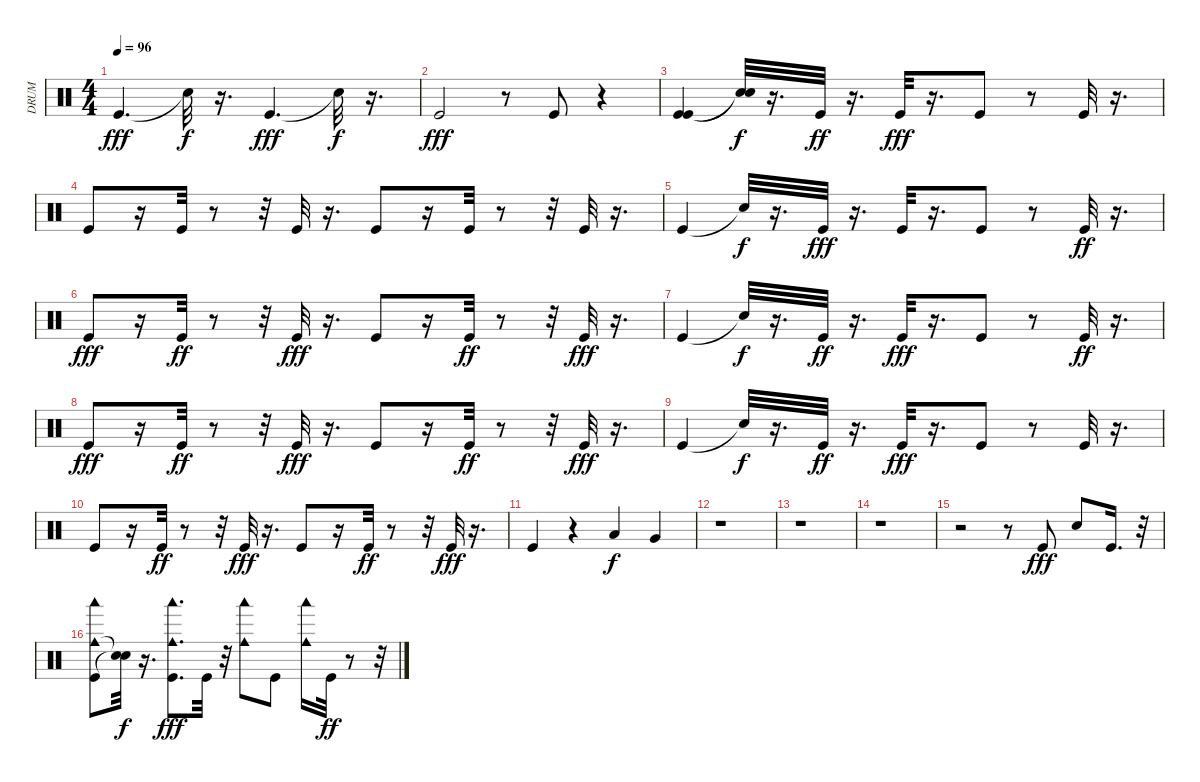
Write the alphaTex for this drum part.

\track ("DRUM" "DRUM") {instrument percussion}
\staff {score}
\articulation defaults
\ts (4 4)
\tempo 96
\clef neutral
\ks c "Kick (hit)".4{d dy fff} "Snare (hit)"{t}.32{dy f}
r.16{d} "Kick (hit)".4{d dy fff} "Snare (hit)"{t}.32{dy f} r.16{d} |
"Kick (hit)".2{dy fff} r.8 "Kick (hit)".8 r.4 |
("Kick (hit)" "Kick (hit)").4 ("Snare (hit)"{t} "Snare (hit)"{t}).32{dy f} r.16{d} "Kick (hit)".32{dy ff} r.16{d} "Kick (hit)".32{dy fff} r.16{d} "Kick (hit)".8 r.8 "Kick (hit)".32 r.16{d} |
"Kick (hit)".8 r.16 "Kick (hit)".32 r.8 r.32 "Kick (hit)".32 r.16{d} "Kick (hit)".8 r.16 "Kick (hit)".32 r.8 r.32 "Kick (hit)".32 r.16{d} |
"Kick (hit)".4 "Snare (hit)"{t}.32{dy f} r.16{d} "Kick (hit)".32{dy fff} r.16{d} "Kick (hit)".32 r.16{d} "Kick (hit)".8 r.8 "Kick (hit)".32{dy ff} r.16{d} |
"Kick (hit)".8{dy fff} r.16 "Kick (hit)".32{dy ff} r.8 r.32 "Kick (hit)".32{dy fff} r.16{d} "Kick (hit)".8 r.16 "Kick (hit)".32{dy ff} r.8 r.32 "Kick (hit)".32{dy fff} r.16{d} |
"Kick (hit)".4 "Snare (hit)"{t}.32{dy f} r.16{d} "Kick (hit)".32{dy ff} r.16{d} "Kick (hit)".32{dy fff} r.16{d} "Kick (hit)".8 r.8 "Kick (hit)".32{dy ff} r.16{d} |
"Kick (hit)".8{dy fff} r.16 "Kick (hit)".32{dy ff} r.8 r.32 "Kick (hit)".32{dy fff} r.16{d} "Kick (hit)".8 r.16 "Kick (hit)".32{dy ff} r.8 r.32 "Kick (hit)".32{dy fff} r.16{d} |
"Kick (hit)".4 "Snare (hit)"{t}.32{dy f} r.16{d} "Kick (hit)".32{dy ff} r.16{d} "Kick (hit)".32{dy fff} r.16{d} "Kick (hit)".8 r.8 "Kick (hit)".32 r.16{d} |
"Kick (hit)".8 r.16 "Kick (hit)".32{dy ff} r.8 r.32 "Kick (hit)".32{dy fff} r.16{d} "Kick (hit)".8 r.16 "Kick (hit)".32{dy ff} r.8 r.32 "Kick (hit)".32{dy fff} r.16{d} |
"Kick (hit)".4 r.4 "Low Tom (hit)".4{dy f} "Very Low Tom (hit)".4 |
r.1 |
r.1 |
r.1 |
r.2 r.8 "Kick (hit)".8{dy fff} "Snare (hit) 2".8 "Kick (hit)".16{d} r.32 |
("Kick (hit)" "Cowbell medium (hit)" "Woodblock low (hit)").8 ("Snare (hit)"{t} "Snare (hit)"{t}).32{dy f} r.16{d} ("Kick (hit)" "Cowbell medium (hit)" "Woodblock low (hit)").8{d dy fff} "Kick (hit)".32 r.32 ("Cowbell medium (hit)" "Woodblock low (hit)").8 "Kick (hit)".8 ("Woodblock low (hit)" "Cowbell medium (hit)").16 "Kick (hit)".32{dy ff} r.8 r.32
